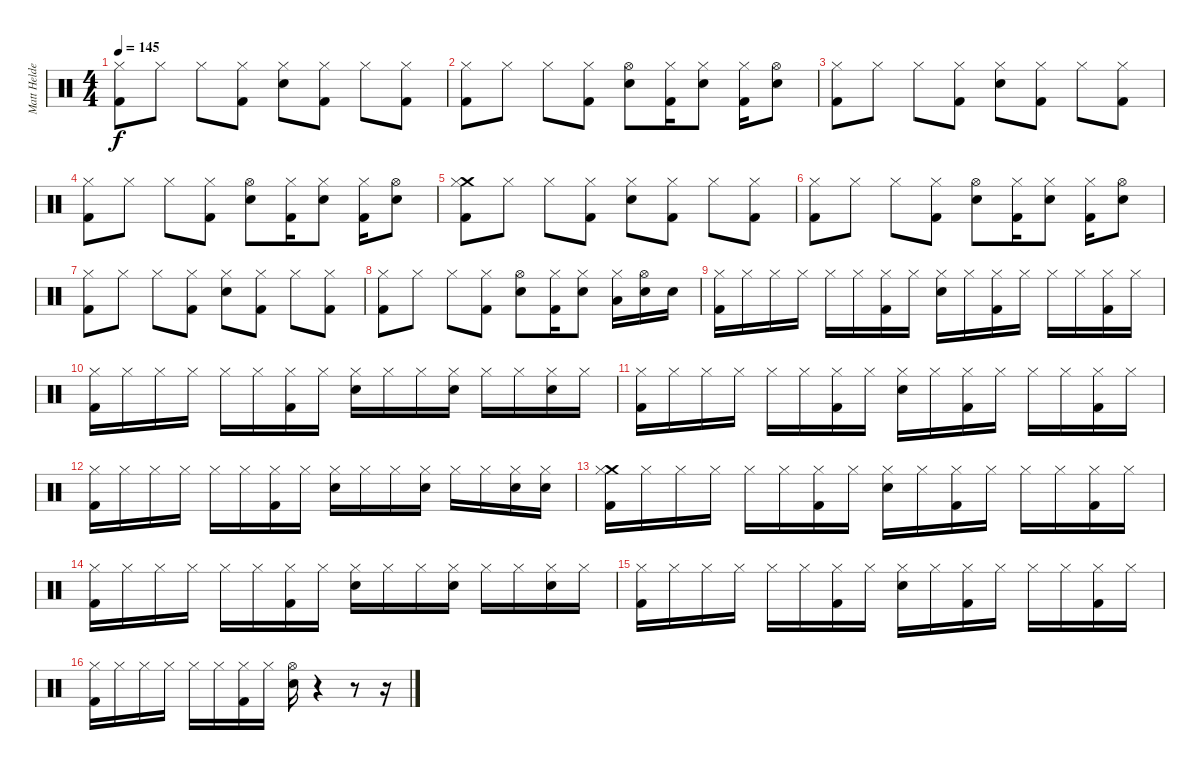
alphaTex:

\track ("Matt Helders" "Matt Helde") {instrument percussion}
\staff {score}
\articulation defaults
\ts (4 4)
\tempo 145
\clef neutral
\ks c
("Hi-Hat (closed)" "Kick (hit) 2").8{dy f} "Hi-Hat (closed)".8 "Hi-Hat (closed)".8 ("Hi-Hat (closed)" "Kick (hit) 2").8 ("Hi-Hat (closed)" "Snare (hit) 2").8 ("Hi-Hat (closed)" "Kick (hit) 2").8 "Hi-Hat (closed)".8 ("Hi-Hat (closed)" "Kick (hit) 2").8 |
("Hi-Hat (closed)" "Kick (hit) 2").8 "Hi-Hat (closed)".8 "Hi-Hat (closed)".8 ("Hi-Hat (closed)" "Kick (hit) 2").8 ("Hi-Hat (open)" "Snare (hit) 2").8 ("Hi-Hat (closed)" "Kick (hit) 2").16 ("Hi-Hat (closed)" "Snare (hit) 2").8 ("Hi-Hat (closed)" "Kick (hit) 2").16 ("Hi-Hat (open)" "Snare (hit) 2").8 |
("Hi-Hat (closed)" "Kick (hit) 2").8 "Hi-Hat (closed)".8 "Hi-Hat (closed)".8 ("Hi-Hat (closed)" "Kick (hit) 2").8 ("Hi-Hat (closed)" "Snare (hit) 2").8 ("Hi-Hat (closed)" "Kick (hit) 2").8 "Hi-Hat (closed)".8 ("Hi-Hat (closed)" "Kick (hit) 2").8 |
("Hi-Hat (closed)" "Kick (hit) 2").8 "Hi-Hat (closed)".8 "Hi-Hat (closed)".8 ("Hi-Hat (closed)" "Kick (hit) 2").8 ("Hi-Hat (open)" "Snare (hit) 2").8 ("Hi-Hat (closed)" "Kick (hit) 2").16 ("Hi-Hat (closed)" "Snare (hit) 2").8 ("Hi-Hat (closed)" "Kick (hit) 2").16 ("Hi-Hat (open)" "Snare (hit) 2").8 |
("Crash medium (hit)" "Hi-Hat (closed)" "Kick (hit) 2").8 "Hi-Hat (closed)".8 "Hi-Hat (closed)".8 ("Hi-Hat (closed)" "Kick (hit) 2").8 ("Hi-Hat (closed)" "Snare (hit) 2").8 ("Hi-Hat (closed)" "Kick (hit) 2").8 "Hi-Hat (closed)".8 ("Hi-Hat (closed)" "Kick (hit) 2").8 |
("Hi-Hat (closed)" "Kick (hit) 2").8 "Hi-Hat (closed)".8 "Hi-Hat (closed)".8 ("Hi-Hat (closed)" "Kick (hit) 2").8 ("Hi-Hat (open)" "Snare (hit) 2").8 ("Hi-Hat (closed)" "Kick (hit) 2").16 ("Hi-Hat (closed)" "Snare (hit) 2").8 ("Hi-Hat (closed)" "Kick (hit) 2").16 ("Hi-Hat (open)" "Snare (hit) 2").8 |
("Hi-Hat (closed)" "Kick (hit) 2").8 "Hi-Hat (closed)".8 "Hi-Hat (closed)".8 ("Hi-Hat (closed)" "Kick (hit) 2").8 ("Hi-Hat (closed)" "Snare (hit) 2").8 ("Hi-Hat (closed)" "Kick (hit) 2").8 "Hi-Hat (closed)".8 ("Hi-Hat (closed)" "Kick (hit) 2").8 |
("Hi-Hat (closed)" "Kick (hit) 2").8 "Hi-Hat (closed)".8 "Hi-Hat (closed)".8 ("Hi-Hat (closed)" "Kick (hit) 2").8 ("Hi-Hat (open)" "Snare (hit) 2").8 ("Hi-Hat (closed)" "Kick (hit) 2").16 ("Hi-Hat (closed)" "Snare (hit) 2").8 ("Hi-Hat (closed)" "Low Tom (hit)").16 ("Hi-Hat (open)" "Snare (hit) 2").16 "Snare (hit) 2".16 |
("Hi-Hat (closed)" "Kick (hit) 2").16 "Hi-Hat (closed)".16 "Hi-Hat (closed)".16 "Hi-Hat (closed)".16 "Hi-Hat (closed)".16 "Hi-Hat (closed)".16 ("Hi-Hat (closed)" "Kick (hit) 2").16 "Hi-Hat (closed)".16 ("Hi-Hat (closed)" "Snare (hit) 2").16 "Hi-Hat (closed)".16 ("Hi-Hat (closed)" "Kick (hit) 2").16 "Hi-Hat (closed)".16 "Hi-Hat (closed)".16 "Hi-Hat (closed)".16 ("Hi-Hat (closed)" "Kick (hit) 2").16 "Hi-Hat (closed)".16 |
("Hi-Hat (closed)" "Kick (hit) 2").16 "Hi-Hat (closed)".16 "Hi-Hat (closed)".16 "Hi-Hat (closed)".16 "Hi-Hat (closed)".16 "Hi-Hat (closed)".16 ("Hi-Hat (closed)" "Kick (hit) 2").16 "Hi-Hat (closed)".16 ("Hi-Hat (closed)" "Snare (hit) 2").16 "Hi-Hat (closed)".16 "Hi-Hat (closed)".16 ("Hi-Hat (closed)" "Snare (hit) 2").16 "Hi-Hat (closed)".16 "Hi-Hat (closed)".16 ("Hi-Hat (closed)" "Snare (hit) 2").16 "Hi-Hat (closed)".16 |
("Hi-Hat (closed)" "Kick (hit) 2").16 "Hi-Hat (closed)".16 "Hi-Hat (closed)".16 "Hi-Hat (closed)".16 "Hi-Hat (closed)".16 "Hi-Hat (closed)".16 ("Hi-Hat (closed)" "Kick (hit) 2").16 "Hi-Hat (closed)".16 ("Hi-Hat (closed)" "Snare (hit) 2").16 "Hi-Hat (closed)".16 ("Hi-Hat (closed)" "Kick (hit) 2").16 "Hi-Hat (closed)".16 "Hi-Hat (closed)".16 "Hi-Hat (closed)".16 ("Hi-Hat (closed)" "Kick (hit) 2").16 "Hi-Hat (closed)".16 |
("Hi-Hat (closed)" "Kick (hit) 2").16 "Hi-Hat (closed)".16 "Hi-Hat (closed)".16 "Hi-Hat (closed)".16 "Hi-Hat (closed)".16 "Hi-Hat (closed)".16 ("Hi-Hat (closed)" "Kick (hit) 2").16 "Hi-Hat (closed)".16 ("Hi-Hat (closed)" "Snare (hit) 2").16 "Hi-Hat (closed)".16 "Hi-Hat (closed)".16 ("Hi-Hat (closed)" "Snare (hit) 2").16 "Hi-Hat (closed)".16 "Hi-Hat (closed)".16 ("Hi-Hat (closed)" "Snare (hit) 2").16 ("Hi-Hat (closed)" "Snare (hit) 2").16 |
("Crash medium (hit)" "Hi-Hat (closed)" "Kick (hit) 2").16 "Hi-Hat (closed)".16 "Hi-Hat (closed)".16 "Hi-Hat (closed)".16 "Hi-Hat (closed)".16 "Hi-Hat (closed)".16 ("Hi-Hat (closed)" "Kick (hit) 2").16 "Hi-Hat (closed)".16 ("Hi-Hat (closed)" "Snare (hit) 2").16 "Hi-Hat (closed)".16 ("Hi-Hat (closed)" "Kick (hit) 2").16 "Hi-Hat (closed)".16 "Hi-Hat (closed)".16 "Hi-Hat (closed)".16 ("Hi-Hat (closed)" "Kick (hit) 2").16 "Hi-Hat (closed)".16 |
("Hi-Hat (closed)" "Kick (hit) 2").16 "Hi-Hat (closed)".16 "Hi-Hat (closed)".16 "Hi-Hat (closed)".16 "Hi-Hat (closed)".16 "Hi-Hat (closed)".16 ("Hi-Hat (closed)" "Kick (hit) 2").16 "Hi-Hat (closed)".16 ("Hi-Hat (closed)" "Snare (hit) 2").16 "Hi-Hat (closed)".16 "Hi-Hat (closed)".16 ("Hi-Hat (closed)" "Snare (hit) 2").16 "Hi-Hat (closed)".16 "Hi-Hat (closed)".16 ("Hi-Hat (closed)" "Snare (hit) 2").16 "Hi-Hat (closed)".16 |
("Hi-Hat (closed)" "Kick (hit) 2").16 "Hi-Hat (closed)".16 "Hi-Hat (closed)".16 "Hi-Hat (closed)".16 "Hi-Hat (closed)".16 "Hi-Hat (closed)".16 ("Hi-Hat (closed)" "Kick (hit) 2").16 "Hi-Hat (closed)".16 ("Hi-Hat (closed)" "Snare (hit) 2").16 "Hi-Hat (closed)".16 ("Hi-Hat (closed)" "Kick (hit) 2").16 "Hi-Hat (closed)".16 "Hi-Hat (closed)".16 "Hi-Hat (closed)".16 ("Hi-Hat (closed)" "Kick (hit) 2").16 "Hi-Hat (closed)".16 |
("Hi-Hat (closed)" "Kick (hit) 2").16 "Hi-Hat (closed)".16 "Hi-Hat (closed)".16 "Hi-Hat (closed)".16 "Hi-Hat (closed)".16 "Hi-Hat (closed)".16 ("Hi-Hat (closed)" "Kick (hit) 2").16 "Hi-Hat (closed)".16 ("Hi-Hat (open)" "Snare (hit) 2").16 r.4 r.8 r.16
